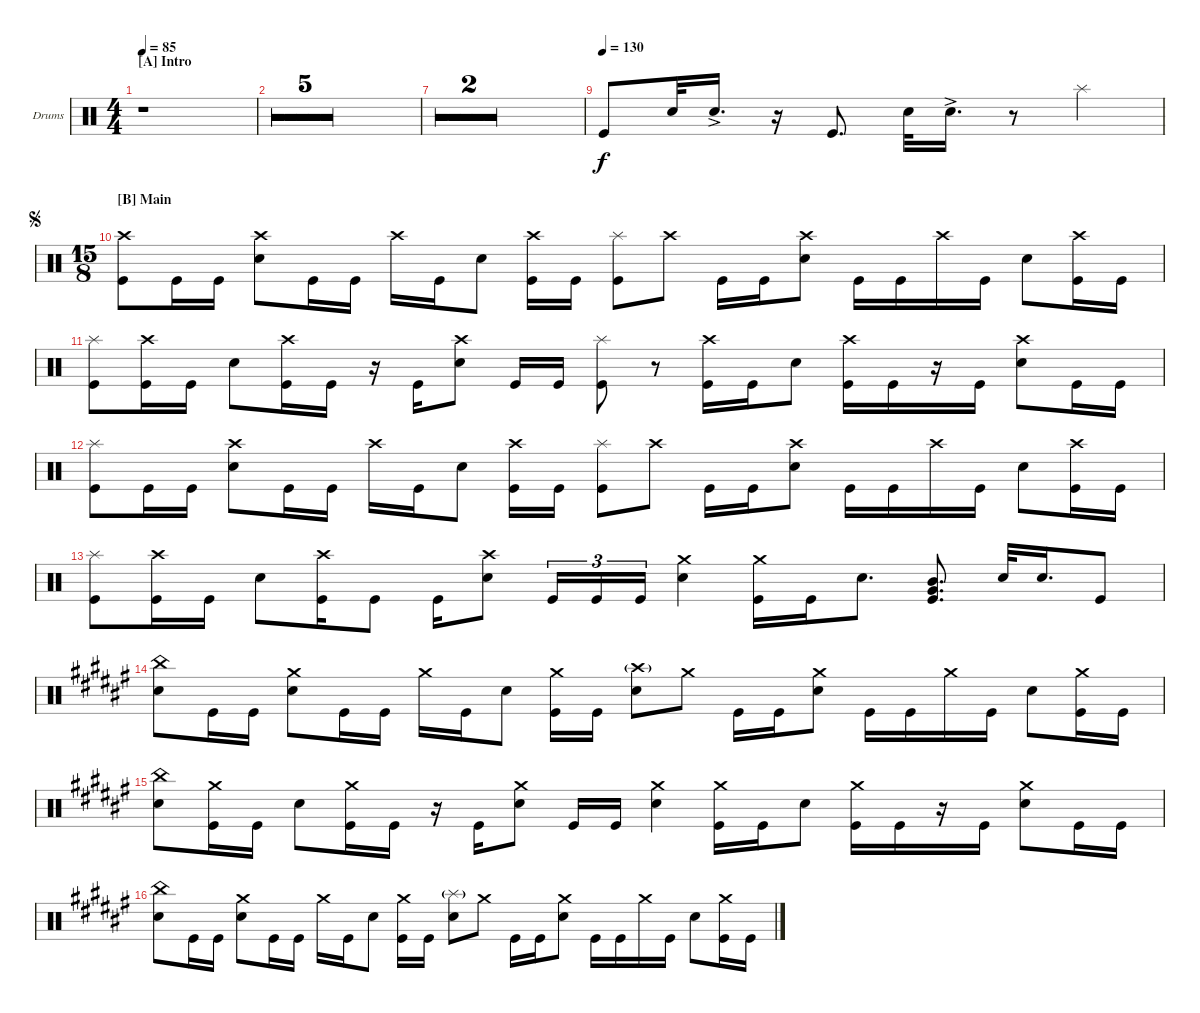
\bracketExtendMode groupsimilarinstruments
\firstSystemTrackNameOrientation horizontal
\otherSystemsTrackNameOrientation horizontal
\track ("Drumkit" "Drums") {multiBarRest instrument percussion}
\staff {score}
\articulation defaults
\ts (4 4)
\section ("A" "Intro")
\tempo 85
\clef neutral
\ks c
r.1{dy f} |
r.1 |
r.1 |
r.1 |
r.1 |
\tempo (85 1)
r.1 |
\tempo (75 1)
r.1 |
r.1 |
\tempo (130)
"Kick (hit)".8 "Snare (hit) 2".32 "Snare (hit) 2"{ac}.16{d} r.16 "Kick (hit)".8{d} "Snare (hit) 2".32 "Snare (hit) 2"{ac}.16{d} r.8 "Splash (hit)".4 |
\ts (15 8)
\beaming (8 2 2 2 1 2 2 2 2)
\section ("B" "Main")
\jump segno
\ks aminor
("Kick (hit)" "Crash high (hit)").8 "Kick (hit)".16 "Kick (hit)".16 ("Snare (hit) 2" "Crash high (hit)").8 "Kick (hit)".16 "Kick (hit)".16 "Crash high (hit)".16 "Kick (hit)".16 "Snare (hit) 2".8 ("Kick (hit)" "Crash high (hit)").16 "Kick (hit)".16 ("Kick (hit)" "Splash (hit)").8 "Crash high (hit)".8 "Kick (hit)".16 "Kick (hit)".16 ("Snare (hit) 2" "Crash high (hit)").8 "Kick (hit)".16 "Kick (hit)".16 "Crash high (hit)".16 "Kick (hit)".16 "Snare (hit) 2".8 ("Kick (hit)" "Crash high (hit)").16 "Kick (hit)".16 |
("Kick (hit)" "Splash (hit)").8 ("Kick (hit)" "Crash high (hit)").16 "Kick (hit)".16 "Snare (hit) 2".8 ("Kick (hit)" "Crash high (hit)").16 "Kick (hit)".16 r.16 "Kick (hit)".16 ("Snare (hit) 2" "Crash high (hit)").8 "Kick (hit)".16 "Kick (hit)".16 ("Kick (hit)" "Splash (hit)").8 r.8 ("Kick (hit)" "Crash high (hit)").16 "Kick (hit)".16 "Snare (hit) 2".8 ("Kick (hit)" "Crash high (hit)").16 "Kick (hit)".16 r.16 "Kick (hit)".16 ("Snare (hit) 2" "Crash high (hit)").8 "Kick (hit)".16 "Kick (hit)".16 |
("Kick (hit)" "Splash (hit)").8 "Kick (hit)".16 "Kick (hit)".16 ("Snare (hit) 2" "Crash high (hit)").8 "Kick (hit)".16 "Kick (hit)".16 "Crash high (hit)".16 "Kick (hit)".16 "Snare (hit) 2".8 ("Kick (hit)" "Crash high (hit)").16 "Kick (hit)".16 ("Kick (hit)" "Splash (hit)").8 "Crash high (hit)".8 "Kick (hit)".16 "Kick (hit)".16 ("Snare (hit) 2" "Crash high (hit)").8 "Kick (hit)".16 "Kick (hit)".16 "Crash high (hit)".16 "Kick (hit)".16 "Snare (hit) 2".8 ("Kick (hit)" "Crash high (hit)").16 "Kick (hit)".16 |
("Kick (hit)" "Splash (hit)").8 ("Kick (hit)" "Crash high (hit)").16 "Kick (hit)".16 "Snare (hit) 2".8 ("Kick (hit)" "Crash high (hit)").16 "Kick (hit)".8 "Kick (hit)".16 ("Snare (hit) 2" "Crash high (hit)").8 "Kick (hit)".16{tu (3 2)} "Kick (hit)".16{tu (3 2)} "Kick (hit)".16{tu (3 2)} ("Snare (hit) 2" "Crash medium (hit)").4 ("Kick (hit)" "Crash medium (hit)").16 "Kick (hit)".16 "Snare (hit) 2".8{d} ("Very Low Tom (hit)" "Mid Tom (hit)" "Kick (hit)").8{d} "Snare (hit) 2".32 "Snare (hit) 2".16{d} "Kick (hit)".8 |
\ks d#minor
("Snare (hit) 2" "China (hit)").8 "Kick (hit)".16 "Kick (hit)".16 ("Snare (hit) 2" "Crash medium (hit)").8 "Kick (hit)".16 "Kick (hit)".16 "Crash medium (hit)".16 "Kick (hit)".16 "Snare (hit) 2".8 ("Kick (hit)" "Crash medium (hit)").16 "Kick (hit)".16 ("Snare (hit) 2" "Crash high (hit)"{g}).8 "Crash medium (hit)".8 "Kick (hit)".16 "Kick (hit)".16 ("Snare (hit) 2" "Crash medium (hit)").8 "Kick (hit)".16 "Kick (hit)".16 "Crash medium (hit)".16 "Kick (hit)".16 "Snare (hit) 2".8 ("Kick (hit)" "Crash medium (hit)").16 "Kick (hit)".16 |
("Snare (hit) 2" "China (hit)").8 ("Kick (hit)" "Crash medium (hit)").16 "Kick (hit)".16 "Snare (hit) 2".8 ("Kick (hit)" "Crash medium (hit)").16 "Kick (hit)".16 r.16 "Kick (hit)".16 ("Snare (hit) 2" "Crash medium (hit)").8 "Kick (hit)".16 "Kick (hit)".16 ("Snare (hit) 2" "Crash medium (hit)").4 ("Kick (hit)" "Crash medium (hit)").16 "Kick (hit)".16 "Snare (hit) 2".8 ("Kick (hit)" "Crash medium (hit)").16 "Kick (hit)".16 r.16 "Kick (hit)".16 ("Snare (hit) 2" "Crash medium (hit)").8 "Kick (hit)".16 "Kick (hit)".16 |
("Snare (hit) 2" "China (hit)").8 "Kick (hit)".16 "Kick (hit)".16 ("Snare (hit) 2" "Crash medium (hit)").8 "Kick (hit)".16 "Kick (hit)".16 "Crash medium (hit)".16 "Kick (hit)".16 "Snare (hit) 2".8 ("Kick (hit)" "Crash medium (hit)").16 "Kick (hit)".16 ("Splash (hit)"{g} "Snare (hit) 2").8 "Crash medium (hit)".8 "Kick (hit)".16 "Kick (hit)".16 ("Snare (hit) 2" "Crash medium (hit)").8 "Kick (hit)".16 "Kick (hit)".16 "Crash medium (hit)".16 "Kick (hit)".16 "Snare (hit) 2".8 ("Kick (hit)" "Crash medium (hit)").16 "Kick (hit)".16
